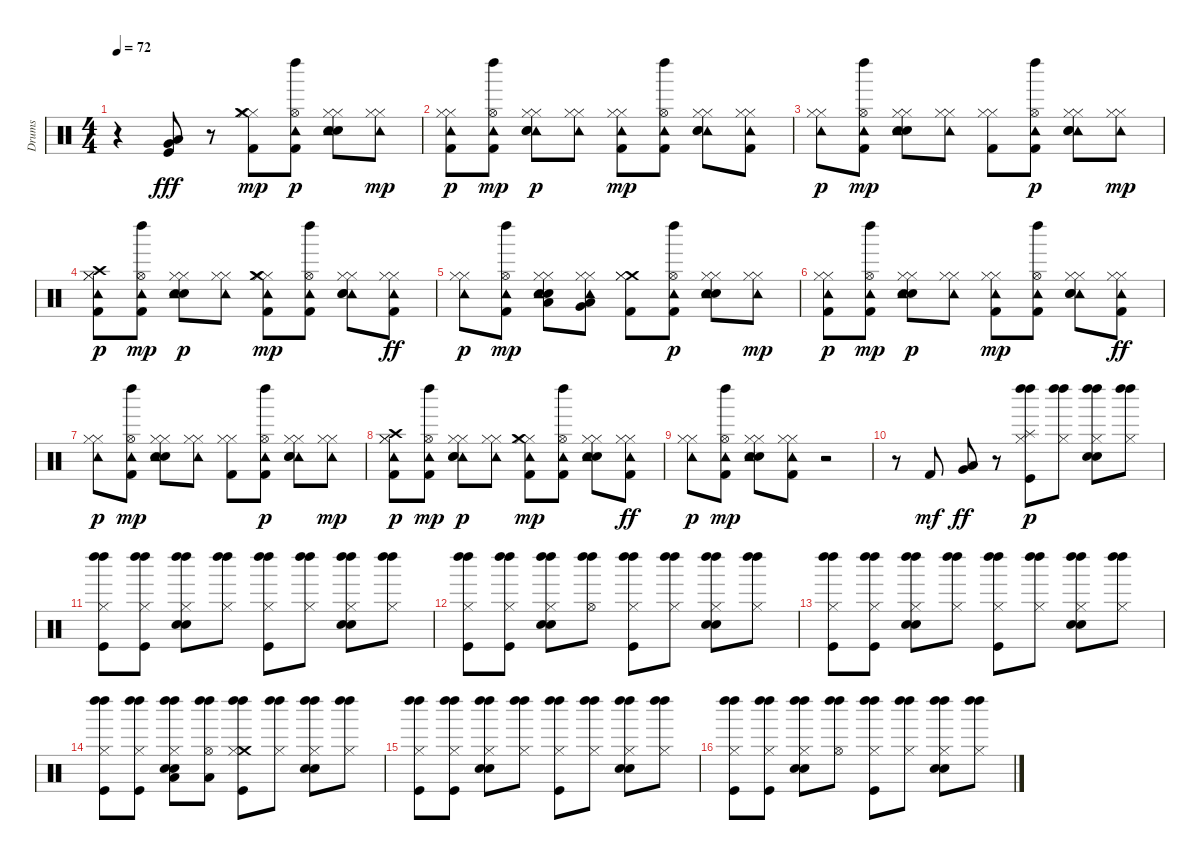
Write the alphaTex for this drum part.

\track ("Drums" "Drums") {instrument percussion}
\staff {score}
\articulation defaults
\ts (4 4)
\tempo 72
\clef neutral
\ks c
r.4{dy pp} ("Kick (hit)" "Low Floor Tom (hit)" "Very Low Tom (hit)").8{dy fff} r.8 ("Kick (hit) 2" "Hi-Hat (closed)" "Crash medium (hit)" "Hi-Hat (closed)").8{dy mp} ("Tambourine (hit)" "Kick (hit) 2" "Hi-Hat (open)" "Left Maraca (hit)").8{dy p} ("Electric Snare (hit)" "Tambourine (hit)" "Hi-Hat (closed)" "Hand Clap (hit)" "Hi-Hat (closed)").8 ("Hi-Hat (closed)" "Tambourine (hit)" "Hi-Hat (closed)").8{dy mp} |
("Hi-Hat (closed)" "Tambourine (hit)" "Kick (hit) 2" "Hi-Hat (closed)").8{dy p} ("Hi-Hat (open)" "Tambourine (hit)" "Kick (hit) 2" "Left Maraca (hit)").8{dy mp} ("Tambourine (hit)" "Hand Clap (hit)" "Electric Snare (hit)" "Hi-Hat (closed)" "Hi-Hat (closed)").8{dy p} ("Tambourine (hit)" "Hi-Hat (closed)" "Hi-Hat (closed)").8 ("Tambourine (hit)" "Kick (hit) 2" "Hi-Hat (closed)" "Hi-Hat (closed)").8{dy mp} ("Kick (hit) 2" "Tambourine (hit)" "Hi-Hat (open)" "Left Maraca (hit)").8 ("Hi-Hat (closed)" "Tambourine (hit)" "Electric Snare (hit)" "Hand Clap (hit)" "Hi-Hat (closed)").8 ("Hi-Hat (closed)" "Tambourine (hit)" "Kick (hit) 2" "Hi-Hat (closed)").8 |
("Tambourine (hit)" "Hi-Hat (closed)" "Hi-Hat (closed)").8{dy p} ("Tambourine (hit)" "Hi-Hat (open)" "Kick (hit) 2" "Left Maraca (hit)").8{dy mp} ("Hand Clap (hit)" "Electric Snare (hit)" "Hi-Hat (closed)" "Tambourine (hit)" "Hi-Hat (closed)").8 ("Tambourine (hit)" "Hi-Hat (closed)" "Hi-Hat (closed)").8 ("Hi-Hat (closed)" "Kick (hit) 2" "Hi-Hat (closed)").8 ("Hi-Hat (open)" "Kick (hit) 2" "Tambourine (hit)" "Left Maraca (hit)").8{dy p} ("Hi-Hat (closed)" "Tambourine (hit)" "Hand Clap (hit)" "Electric Snare (hit)" "Hi-Hat (closed)").8 ("Tambourine (hit)" "Hi-Hat (closed)" "Hi-Hat (closed)").8{dy mp} |
("Crash high (hit)" "Kick (hit) 2" "Tambourine (hit)" "Hi-Hat (closed)" "Hi-Hat (closed)").8{dy p} ("Tambourine (hit)" "Hi-Hat (open)" "Kick (hit) 2" "Left Maraca (hit)").8{dy mp} ("Electric Snare (hit)" "Hand Clap (hit)" "Tambourine (hit)" "Hi-Hat (closed)" "Hi-Hat (closed)").8{dy p} ("Tambourine (hit)" "Hi-Hat (closed)" "Hi-Hat (closed)").8 ("Tambourine (hit)" "Hi-Hat (closed)" "Kick (hit) 2" "Crash medium (hit)" "Hi-Hat (closed)").8{dy mp} ("Hi-Hat (open)" "Tambourine (hit)" "Kick (hit) 2" "Left Maraca (hit)").8 ("Tambourine (hit)" "Hand Clap (hit)" "Electric Snare (hit)" "Hi-Hat (closed)" "Hi-Hat (closed)").8 ("Tambourine (hit)" "Hi-Hat (closed)" "Hi-Hat (closed)" "Kick (hit) 2").8{dy ff} |
("Tambourine (hit)" "Hi-Hat (closed)" "Hi-Hat (closed)").8{dy p} ("Tambourine (hit)" "Kick (hit) 2" "Hi-Hat (open)" "Left Maraca (hit)").8{dy mp} ("Electric Snare (hit)" "Tambourine (hit)" "Low Tom (hit)" "Hi-Hat (closed)" "Hand Clap (hit)" "Hi-Hat (closed)").8 ("Hi-Hat (closed)" "Low Floor Tom (hit)" "Very Low Tom (hit)" "Tambourine (hit)" "Hi-Hat (closed)").8 ("Crash medium (hit)" "Hi-Hat (closed)" "Kick (hit) 2" "Hi-Hat (closed)").8 ("Hi-Hat (open)" "Kick (hit) 2" "Tambourine (hit)" "Left Maraca (hit)").8{dy p} ("Electric Snare (hit)" "Hi-Hat (closed)" "Tambourine (hit)" "Hand Clap (hit)" "Hi-Hat (closed)").8 ("Tambourine (hit)" "Hi-Hat (closed)" "Hi-Hat (closed)").8{dy mp} |
("Kick (hit) 2" "Hi-Hat (closed)" "Tambourine (hit)" "Hi-Hat (closed)").8{dy p} ("Hi-Hat (open)" "Tambourine (hit)" "Kick (hit) 2" "Left Maraca (hit)").8{dy mp} ("Electric Snare (hit)" "Tambourine (hit)" "Hi-Hat (closed)" "Hand Clap (hit)" "Hi-Hat (closed)").8{dy p} ("Tambourine (hit)" "Hi-Hat (closed)" "Hi-Hat (closed)").8 ("Hi-Hat (closed)" "Tambourine (hit)" "Kick (hit) 2" "Hi-Hat (closed)").8{dy mp} ("Kick (hit) 2" "Tambourine (hit)" "Hi-Hat (open)" "Left Maraca (hit)").8 ("Tambourine (hit)" "Electric Snare (hit)" "Hand Clap (hit)" "Hi-Hat (closed)" "Hi-Hat (closed)").8 ("Hi-Hat (closed)" "Tambourine (hit)" "Hi-Hat (closed)" "Kick (hit) 2").8{dy ff} |
("Hi-Hat (closed)" "Tambourine (hit)" "Hi-Hat (closed)").8{dy p} ("Hi-Hat (open)" "Kick (hit) 2" "Tambourine (hit)" "Left Maraca (hit)").8{dy mp} ("Hand Clap (hit)" "Electric Snare (hit)" "Tambourine (hit)" "Hi-Hat (closed)" "Hi-Hat (closed)").8 ("Tambourine (hit)" "Hi-Hat (closed)" "Hi-Hat (closed)").8 ("Kick (hit) 2" "Hi-Hat (closed)" "Hi-Hat (closed)").8 ("Kick (hit) 2" "Hi-Hat (open)" "Tambourine (hit)" "Left Maraca (hit)").8{dy p} ("Hi-Hat (closed)" "Tambourine (hit)" "Electric Snare (hit)" "Hand Clap (hit)" "Hi-Hat (closed)").8 ("Tambourine (hit)" "Hi-Hat (closed)" "Hi-Hat (closed)").8{dy mp} |
("Kick (hit) 2" "Hi-Hat (closed)" "Crash high (hit)" "Tambourine (hit)" "Hi-Hat (closed)").8{dy p} ("Hi-Hat (open)" "Kick (hit) 2" "Tambourine (hit)" "Left Maraca (hit)").8{dy mp} ("Tambourine (hit)" "Hi-Hat (closed)" "Electric Snare (hit)" "Hand Clap (hit)" "Hi-Hat (closed)").8{dy p} ("Hi-Hat (closed)" "Tambourine (hit)" "Hi-Hat (closed)").8 ("Kick (hit) 2" "Hi-Hat (closed)" "Crash medium (hit)" "Tambourine (hit)" "Hi-Hat (closed)").8{dy mp} ("Hi-Hat (open)" "Kick (hit) 2" "Tambourine (hit)" "Left Maraca (hit)").8 ("Electric Snare (hit)" "Hand Clap (hit)" "Hi-Hat (closed)" "Tambourine (hit)" "Hi-Hat (closed)").8 ("Hi-Hat (closed)" "Tambourine (hit)" "Hi-Hat (closed)" "Kick (hit) 2").8{dy ff} |
("Hi-Hat (closed)" "Tambourine (hit)" "Hi-Hat (closed)").8{dy p} ("Kick (hit) 2" "Tambourine (hit)" "Hi-Hat (open)" "Left Maraca (hit)").8{dy mp} ("Hi-Hat (closed)" "Hand Clap (hit)" "Electric Snare (hit)" "Tambourine (hit)" "Hi-Hat (closed)").8 ("Kick (hit) 2" "Hi-Hat (closed)" "Tambourine (hit)" "Hi-Hat (closed)").8 r.2 |
r.8 "Kick (hit) 2".8{dy mf} ("Very Low Tom (hit)" "Low Floor Tom (hit)").8{dy ff} r.8 ("Splash (hit)" "Hi-Hat (closed)" "Kick (hit)" "Left Maraca (hit)" "Left Maraca (hit)").8{dy p} ("Hi-Hat (closed)" "Left Maraca (hit)" "Left Maraca (hit)").8 ("Hand Clap (hit)" "Hi-Hat (closed)" "Electric Snare (hit)" "Left Maraca (hit)" "Left Maraca (hit)").8 ("Hi-Hat (closed)" "Left Maraca (hit)" "Left Maraca (hit)").8 |
("Kick (hit)" "Left Maraca (hit)" "Hi-Hat (closed)" "Left Maraca (hit)").8 ("Kick (hit)" "Hi-Hat (closed)" "Left Maraca (hit)" "Left Maraca (hit)").8 ("Left Maraca (hit)" "Hi-Hat (closed)" "Electric Snare (hit)" "Hand Clap (hit)" "Left Maraca (hit)").8 ("Left Maraca (hit)" "Hi-Hat (closed)" "Left Maraca (hit)").8 ("Left Maraca (hit)" "Hi-Hat (closed)" "Kick (hit)" "Left Maraca (hit)").8 ("Left Maraca (hit)" "Hi-Hat (closed)" "Left Maraca (hit)").8 ("Hand Clap (hit)" "Left Maraca (hit)" "Hi-Hat (closed)" "Electric Snare (hit)" "Left Maraca (hit)").8 ("Hi-Hat (closed)" "Left Maraca (hit)" "Left Maraca (hit)").8 |
("Kick (hit)" "Left Maraca (hit)" "Hi-Hat (closed)" "Left Maraca (hit)").8 ("Hi-Hat (closed)" "Kick (hit)" "Left Maraca (hit)" "Left Maraca (hit)").8 ("Hi-Hat (closed)" "Hand Clap (hit)" "Electric Snare (hit)" "Left Maraca (hit)" "Left Maraca (hit)").8 ("Hi-Hat (open)" "Left Maraca (hit)" "Left Maraca (hit)").8 ("Kick (hit)" "Hi-Hat (closed)" "Left Maraca (hit)" "Left Maraca (hit)").8 ("Hi-Hat (closed)" "Left Maraca (hit)" "Left Maraca (hit)").8 ("Left Maraca (hit)" "Hi-Hat (closed)" "Hand Clap (hit)" "Electric Snare (hit)" "Left Maraca (hit)").8 ("Left Maraca (hit)" "Hi-Hat (closed)" "Left Maraca (hit)").8 |
("Kick (hit)" "Hi-Hat (closed)" "Left Maraca (hit)" "Left Maraca (hit)").8 ("Hi-Hat (closed)" "Kick (hit)" "Left Maraca (hit)" "Left Maraca (hit)").8 ("Left Maraca (hit)" "Hand Clap (hit)" "Hi-Hat (closed)" "Electric Snare (hit)" "Left Maraca (hit)").8 ("Hi-Hat (closed)" "Left Maraca (hit)" "Left Maraca (hit)").8 ("Kick (hit)" "Hi-Hat (closed)" "Left Maraca (hit)" "Left Maraca (hit)").8 ("Hi-Hat (closed)" "Left Maraca (hit)" "Left Maraca (hit)").8 ("Hand Clap (hit)" "Electric Snare (hit)" "Hi-Hat (closed)" "Left Maraca (hit)" "Left Maraca (hit)").8 ("Hi-Hat (closed)" "Left Maraca (hit)" "Left Maraca (hit)").8 |
("Left Maraca (hit)" "Hi-Hat (closed)" "Kick (hit)" "Left Maraca (hit)").8 ("Kick (hit)" "Left Maraca (hit)" "Hi-Hat (closed)" "Left Maraca (hit)").8 ("Hi-Hat (closed)" "Low Tom (hit)" "Electric Snare (hit)" "Left Maraca (hit)" "Hand Clap (hit)" "Left Maraca (hit)").8 ("Left Maraca (hit)" "Hi-Hat (open)" "Low Floor Tom (hit)" "Left Maraca (hit)").8 ("Left Maraca (hit)" "Kick (hit)" "Crash medium (hit)" "Hi-Hat (closed)" "Left Maraca (hit)").8 ("Left Maraca (hit)" "Hi-Hat (closed)" "Left Maraca (hit)").8 ("Electric Snare (hit)" "Hand Clap (hit)" "Left Maraca (hit)" "Hi-Hat (closed)" "Left Maraca (hit)").8 ("Hi-Hat (closed)" "Left Maraca (hit)" "Left Maraca (hit)").8 |
("Left Maraca (hit)" "Kick (hit)" "Hi-Hat (closed)" "Left Maraca (hit)").8 ("Kick (hit)" "Left Maraca (hit)" "Hi-Hat (closed)" "Left Maraca (hit)").8 ("Electric Snare (hit)" "Hand Clap (hit)" "Hi-Hat (closed)" "Left Maraca (hit)" "Left Maraca (hit)").8 ("Hi-Hat (closed)" "Left Maraca (hit)" "Left Maraca (hit)").8 ("Kick (hit)" "Hi-Hat (closed)" "Left Maraca (hit)" "Left Maraca (hit)").8 ("Hi-Hat (closed)" "Left Maraca (hit)" "Left Maraca (hit)").8 ("Electric Snare (hit)" "Hi-Hat (closed)" "Left Maraca (hit)" "Hand Clap (hit)" "Left Maraca (hit)").8 ("Hi-Hat (closed)" "Left Maraca (hit)" "Left Maraca (hit)").8 |
("Hi-Hat (closed)" "Kick (hit)" "Left Maraca (hit)" "Left Maraca (hit)").8 ("Hi-Hat (closed)" "Kick (hit)" "Left Maraca (hit)" "Left Maraca (hit)").8 ("Left Maraca (hit)" "Hi-Hat (closed)" "Electric Snare (hit)" "Hand Clap (hit)" "Left Maraca (hit)").8 ("Left Maraca (hit)" "Hi-Hat (open)" "Left Maraca (hit)").8 ("Left Maraca (hit)" "Hi-Hat (closed)" "Kick (hit)" "Left Maraca (hit)").8 ("Hi-Hat (closed)" "Left Maraca (hit)" "Left Maraca (hit)").8 ("Left Maraca (hit)" "Hand Clap (hit)" "Hi-Hat (closed)" "Electric Snare (hit)" "Left Maraca (hit)").8 ("Left Maraca (hit)" "Hi-Hat (closed)" "Left Maraca (hit)").8
